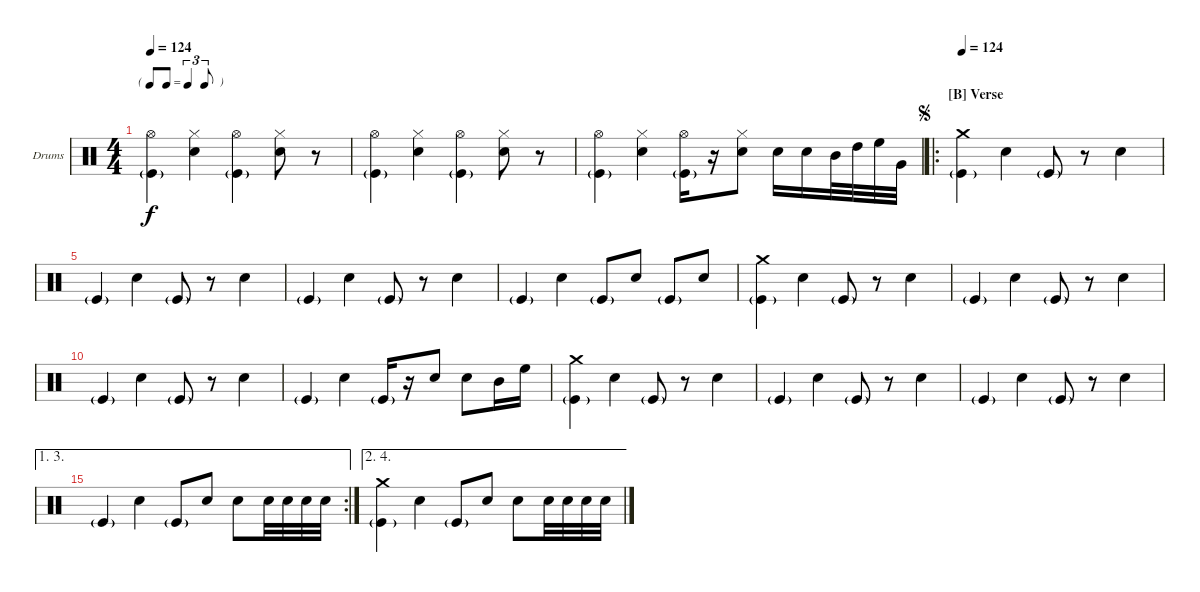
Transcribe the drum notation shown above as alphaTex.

\bracketExtendMode nobrackets
\firstSystemTrackNameOrientation horizontal
\otherSystemsTrackNameOrientation horizontal
\defaultBarNumberDisplay FirstOfSystem
\track ("Drumkit" "Drums") {instrument percussion}
\staff {score}
\articulation defaults
\ts (4 4)
\tf triplet8th
\tempo 124
\clef neutral
\ks c
("Kick (hit)"{g} "Hi-Hat (open)").4{dy f} ("Snare (hit) 2" "Hi-Hat (closed)").4 ("Kick (hit)"{g} "Hi-Hat (open)").4 ("Snare (hit) 2" "Hi-Hat (closed)").8 r.8 |
("Kick (hit)"{g} "Hi-Hat (open)").4 ("Snare (hit) 2" "Hi-Hat (closed)").4 ("Kick (hit)"{g} "Hi-Hat (open)").4 ("Snare (hit) 2" "Hi-Hat (closed)").8 r.8 |
("Kick (hit)"{g} "Hi-Hat (open)").4 ("Snare (hit) 2" "Hi-Hat (closed)").4 ("Kick (hit)"{g} "Hi-Hat (open)").16 r.16 ("Snare (hit) 2" "Hi-Hat (closed)").8 "Snare (hit) 2".16 "Snare (hit) 2".16 "Mid Tom (hit)".32 "High Tom (hit)".32 "High Floor Tom (hit)".32 "Very Low Tom (hit)".32 |
\ro
\section ("B" "Verse")
\jump segno
\tempo 124
("Kick (hit)"{g} "Crash medium (hit)").4 "Snare (hit) 2".4 "Kick (hit)"{g}.8 r.8 "Snare (hit) 2".4 |
"Kick (hit)"{g}.4 "Snare (hit) 2".4 "Kick (hit)"{g}.8 r.8 "Snare (hit) 2".4 |
"Kick (hit)"{g}.4 "Snare (hit) 2".4 "Kick (hit)"{g}.8 r.8 "Snare (hit) 2".4 |
"Kick (hit)"{g}.4 "Snare (hit) 2".4 "Kick (hit)"{g}.8 "Snare (hit) 2".8 "Kick (hit)"{g}.8 "Snare (hit) 2".8 |
("Kick (hit)"{g} "Crash medium (hit)").4 "Snare (hit) 2".4 "Kick (hit)"{g}.8 r.8 "Snare (hit) 2".4 |
"Kick (hit)"{g}.4 "Snare (hit) 2".4 "Kick (hit)"{g}.8 r.8 "Snare (hit) 2".4 |
"Kick (hit)"{g}.4 "Snare (hit) 2".4 "Kick (hit)"{g}.8 r.8 "Snare (hit) 2".4 |
"Kick (hit)"{g}.4 "Snare (hit) 2".4 "Kick (hit)"{g}.16 r.16 "Snare (hit) 2".8 "Snare (hit) 2".8 "Mid Tom (hit)".16 "High Floor Tom (hit)".16 |
("Kick (hit)"{g} "Crash medium (hit)").4 "Snare (hit) 2".4 "Kick (hit)"{g}.8 r.8 "Snare (hit) 2".4 |
"Kick (hit)"{g}.4 "Snare (hit) 2".4 "Kick (hit)"{g}.8 r.8 "Snare (hit) 2".4 |
"Kick (hit)"{g}.4 "Snare (hit) 2".4 "Kick (hit)"{g}.8 r.8 "Snare (hit) 2".4 |
\ae (1 3)
\rc 2 "Kick (hit)"{g}.4 "Snare (hit) 2".4 "Kick (hit)"{g}.8 "Snare (hit) 2".8 "Snare (hit) 2".8 "Snare (hit) 2".32 "Snare (hit) 2".32 "Snare (hit) 2".32 "Snare (hit) 2".32
|
\ae (2 4)
("Kick (hit)"{g} "Crash medium (hit)").4 "Snare (hit) 2".4 "Kick (hit)"{g}.8 "Snare (hit) 2".8 "Snare (hit) 2".8 "Snare (hit) 2".32 "Snare (hit) 2".32 "Snare (hit) 2".32 "Snare (hit) 2".32
